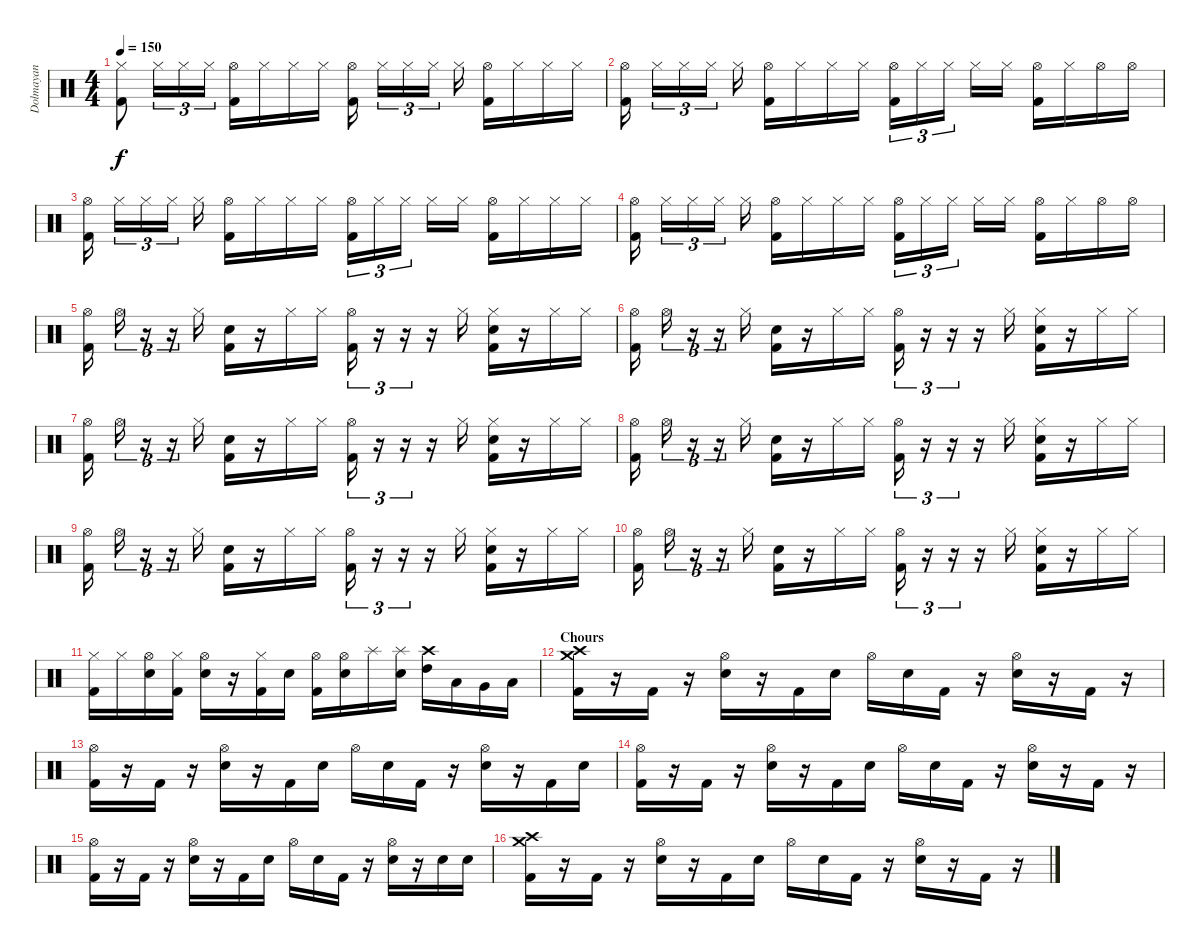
\track ("Dolmayan" "Dolmayan") {instrument percussion}
\staff {score}
\articulation defaults
\ts (4 4)
\tempo 150
\clef neutral
\ks c
("Hi-Hat (closed)" "Kick (hit) 2").8{dy f} "Hi-Hat (closed)".16{tu (3 2)} "Hi-Hat (closed)".16{tu (3 2)} "Hi-Hat (closed)".16{tu (3 2)} ("Hi-Hat (open)" "Kick (hit) 2").16 "Hi-Hat (closed)".16 "Hi-Hat (closed)".16 "Hi-Hat (closed)".16 ("Hi-Hat (open)" "Kick (hit) 2").16 "Hi-Hat (closed)".16{tu (3 2)} "Hi-Hat (closed)".16{tu (3 2)} "Hi-Hat (closed)".16{tu (3 2)} "Hi-Hat (closed)".16 ("Hi-Hat (open)" "Kick (hit) 2").16 "Hi-Hat (closed)".16 "Hi-Hat (closed)".16 "Hi-Hat (closed)".16 |
("Hi-Hat (open)" "Kick (hit) 2").16 "Hi-Hat (closed)".16{tu (3 2)} "Hi-Hat (closed)".16{tu (3 2)} "Hi-Hat (closed)".16{tu (3 2)} "Hi-Hat (closed)".16 ("Hi-Hat (open)" "Kick (hit) 2").16 "Hi-Hat (closed)".16 "Hi-Hat (closed)".16 "Hi-Hat (closed)".16 ("Hi-Hat (open)" "Kick (hit) 2").16{tu (3 2)} "Hi-Hat (closed)".16{tu (3 2)} "Hi-Hat (closed)".16{tu (3 2)} "Hi-Hat (closed)".16 "Hi-Hat (closed)".16 ("Hi-Hat (open)" "Kick (hit) 2").16 "Hi-Hat (closed)".16 "Hi-Hat (open)".16 "Hi-Hat (open)".16 |
("Hi-Hat (open)" "Kick (hit) 2").16 "Hi-Hat (closed)".16{tu (3 2)} "Hi-Hat (closed)".16{tu (3 2)} "Hi-Hat (closed)".16{tu (3 2)} "Hi-Hat (closed)".16 ("Hi-Hat (open)" "Kick (hit) 2").16 "Hi-Hat (closed)".16 "Hi-Hat (closed)".16 "Hi-Hat (closed)".16 ("Hi-Hat (open)" "Kick (hit) 2").16{tu (3 2)} "Hi-Hat (closed)".16{tu (3 2)} "Hi-Hat (closed)".16{tu (3 2)} "Hi-Hat (closed)".16 "Hi-Hat (closed)".16 ("Hi-Hat (open)" "Kick (hit) 2").16 "Hi-Hat (closed)".16 "Hi-Hat (closed)".16 "Hi-Hat (closed)".16 |
("Hi-Hat (open)" "Kick (hit) 2").16 "Hi-Hat (closed)".16{tu (3 2)} "Hi-Hat (closed)".16{tu (3 2)} "Hi-Hat (closed)".16{tu (3 2)} "Hi-Hat (closed)".16 ("Hi-Hat (open)" "Kick (hit) 2").16 "Hi-Hat (closed)".16 "Hi-Hat (closed)".16 "Hi-Hat (closed)".16 ("Hi-Hat (open)" "Kick (hit) 2").16{tu (3 2)} "Hi-Hat (closed)".16{tu (3 2)} "Hi-Hat (closed)".16{tu (3 2)} "Hi-Hat (closed)".16 "Hi-Hat (closed)".16 ("Hi-Hat (open)" "Kick (hit) 2").16 "Hi-Hat (closed)".16 "Hi-Hat (open)".16 "Hi-Hat (open)".16 |
("Hi-Hat (open)" "Kick (hit) 2").16 "Hi-Hat (open)".16{tu (3 2)} r.16{tu (3 2)} r.16{tu (3 2)} "Hi-Hat (closed)".16 ("Electric Snare (hit)" "Kick (hit) 2").16 r.16 "Hi-Hat (closed)".16 "Hi-Hat (closed)".16 ("Hi-Hat (open)" "Kick (hit) 2").16{tu (3 2)} r.16{tu (3 2)} r.16{tu (3 2)} r.16 "Hi-Hat (closed)".16 ("Hi-Hat (closed)" "Electric Snare (hit)" "Kick (hit) 2").16 r.16 "Hi-Hat (closed)".16 "Hi-Hat (closed)".16 |
("Hi-Hat (open)" "Kick (hit) 2").16 "Hi-Hat (open)".16{tu (3 2)} r.16{tu (3 2)} r.16{tu (3 2)} "Hi-Hat (closed)".16 ("Electric Snare (hit)" "Kick (hit) 2").16 r.16 "Hi-Hat (closed)".16 "Hi-Hat (closed)".16 ("Hi-Hat (open)" "Kick (hit) 2").16{tu (3 2)} r.16{tu (3 2)} r.16{tu (3 2)} r.16 "Hi-Hat (closed)".16 ("Hi-Hat (closed)" "Electric Snare (hit)" "Kick (hit) 2").16 r.16 "Hi-Hat (closed)".16 "Hi-Hat (closed)".16 |
("Hi-Hat (open)" "Kick (hit) 2").16 "Hi-Hat (open)".16{tu (3 2)} r.16{tu (3 2)} r.16{tu (3 2)} "Hi-Hat (closed)".16 ("Electric Snare (hit)" "Kick (hit) 2").16 r.16 "Hi-Hat (closed)".16 "Hi-Hat (closed)".16 ("Hi-Hat (open)" "Kick (hit) 2").16{tu (3 2)} r.16{tu (3 2)} r.16{tu (3 2)} r.16 "Hi-Hat (closed)".16 ("Hi-Hat (closed)" "Electric Snare (hit)" "Kick (hit) 2").16 r.16 "Hi-Hat (closed)".16 "Hi-Hat (closed)".16 |
("Hi-Hat (open)" "Kick (hit) 2").16 "Hi-Hat (open)".16{tu (3 2)} r.16{tu (3 2)} r.16{tu (3 2)} "Hi-Hat (closed)".16 ("Electric Snare (hit)" "Kick (hit) 2").16 r.16 "Hi-Hat (closed)".16 "Hi-Hat (closed)".16 ("Hi-Hat (open)" "Kick (hit) 2").16{tu (3 2)} r.16{tu (3 2)} r.16{tu (3 2)} r.16 "Hi-Hat (closed)".16 ("Hi-Hat (closed)" "Electric Snare (hit)" "Kick (hit) 2").16 r.16 "Hi-Hat (closed)".16 "Hi-Hat (closed)".16 |
("Hi-Hat (open)" "Kick (hit) 2").16 "Hi-Hat (open)".16{tu (3 2)} r.16{tu (3 2)} r.16{tu (3 2)} "Hi-Hat (closed)".16 ("Electric Snare (hit)" "Kick (hit) 2").16 r.16 "Hi-Hat (closed)".16 "Hi-Hat (closed)".16 ("Hi-Hat (open)" "Kick (hit) 2").16{tu (3 2)} r.16{tu (3 2)} r.16{tu (3 2)} r.16 "Hi-Hat (closed)".16 ("Hi-Hat (closed)" "Electric Snare (hit)" "Kick (hit) 2").16 r.16 "Hi-Hat (closed)".16 "Hi-Hat (closed)".16 |
("Hi-Hat (open)" "Kick (hit) 2").16 "Hi-Hat (open)".16{tu (3 2)} r.16{tu (3 2)} r.16{tu (3 2)} "Hi-Hat (closed)".16 ("Electric Snare (hit)" "Kick (hit) 2").16 r.16 "Hi-Hat (closed)".16 "Hi-Hat (closed)".16 ("Hi-Hat (open)" "Kick (hit) 2").16{tu (3 2)} r.16{tu (3 2)} r.16{tu (3 2)} r.16 "Hi-Hat (closed)".16 ("Hi-Hat (closed)" "Electric Snare (hit)" "Kick (hit) 2").16 r.16 "Hi-Hat (closed)".16 "Hi-Hat (closed)".16 |
("Hi-Hat (closed)" "Kick (hit) 2").16 "Hi-Hat (closed)".16 ("Hi-Hat (open)" "Electric Snare (hit)").16 ("Hi-Hat (closed)" "Kick (hit) 2").16 ("Hi-Hat (open)" "Electric Snare (hit)").16 r.16 ("Hi-Hat (closed)" "Kick (hit) 2").16 "Electric Snare (hit)".16 ("Hi-Hat (open)" "Kick (hit) 2").16 ("Hi-Hat (open)" "Electric Snare (hit)").16 "Splash (hit)".16 ("Splash (hit)" "Electric Snare (hit)").16 ("Crash high (hit)" "High Tom (hit)").16 "Low Tom (hit)".16 "Very Low Tom (hit)".16 "Low Floor Tom (hit)".16 |
\section ("" "Chours")
("Crash high (hit)" "Crash medium (hit)" "Kick (hit) 2").16 r.16 "Kick (hit) 2".16 r.16 ("Hi-Hat (open)" "Electric Snare (hit)").16 r.16 "Kick (hit) 2".16 "Electric Snare (hit)".16 "Hi-Hat (open)".16 "Electric Snare (hit)".16 "Kick (hit) 2".16 r.16 ("Hi-Hat (open)" "Electric Snare (hit)").16 r.16 "Kick (hit) 2".16 r.16 |
("Hi-Hat (open)" "Kick (hit) 2").16 r.16 "Kick (hit) 2".16 r.16 ("Hi-Hat (open)" "Electric Snare (hit)").16 r.16 "Kick (hit) 2".16 "Electric Snare (hit)".16 "Hi-Hat (open)".16 "Electric Snare (hit)".16 "Kick (hit) 2".16 r.16 ("Hi-Hat (open)" "Electric Snare (hit)").16 r.16 "Kick (hit) 2".16 "Electric Snare (hit)".16 |
("Hi-Hat (open)" "Kick (hit) 2").16 r.16 "Kick (hit) 2".16 r.16 ("Hi-Hat (open)" "Electric Snare (hit)").16 r.16 "Kick (hit) 2".16 "Electric Snare (hit)".16 "Hi-Hat (open)".16 "Electric Snare (hit)".16 "Kick (hit) 2".16 r.16 ("Hi-Hat (open)" "Electric Snare (hit)").16 r.16 "Kick (hit) 2".16 r.16 |
("Hi-Hat (open)" "Kick (hit) 2").16 r.16 "Kick (hit) 2".16 r.16 ("Hi-Hat (open)" "Electric Snare (hit)").16 r.16 "Kick (hit) 2".16 "Electric Snare (hit)".16 "Hi-Hat (open)".16 "Electric Snare (hit)".16 "Kick (hit) 2".16 r.16 ("Hi-Hat (open)" "Electric Snare (hit)").16 r.16 "Electric Snare (hit)".16 "Electric Snare (hit)".16 |
("Crash high (hit)" "Crash medium (hit)" "Kick (hit) 2").16 r.16 "Kick (hit) 2".16 r.16 ("Hi-Hat (open)" "Electric Snare (hit)").16 r.16 "Kick (hit) 2".16 "Electric Snare (hit)".16 "Hi-Hat (open)".16 "Electric Snare (hit)".16 "Kick (hit) 2".16 r.16 ("Hi-Hat (open)" "Electric Snare (hit)").16 r.16 "Kick (hit) 2".16 r.16
